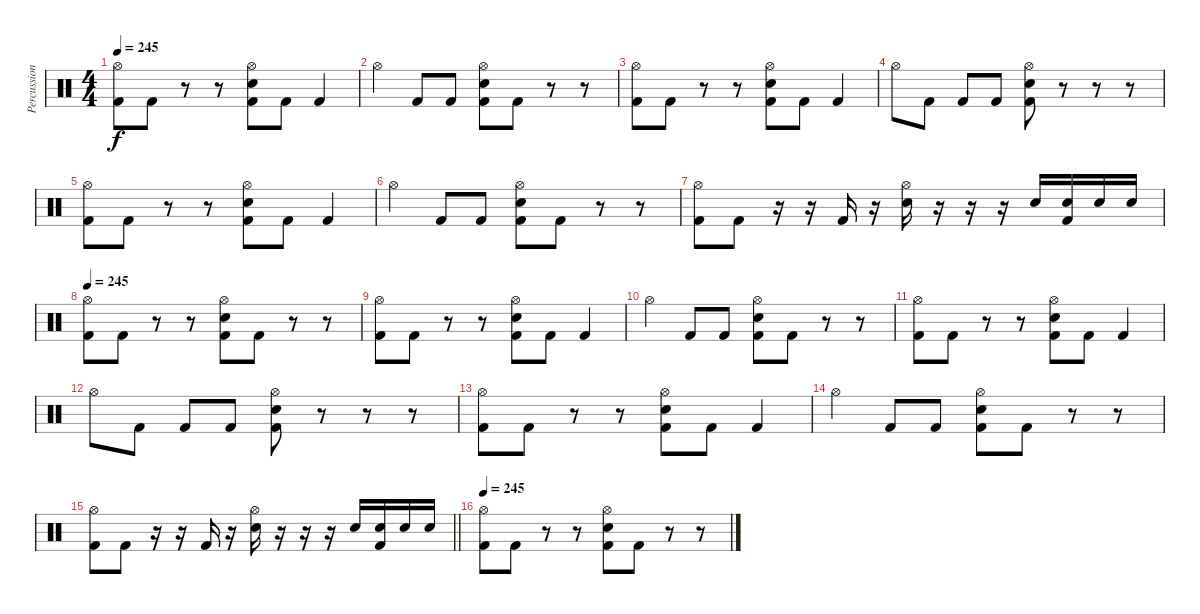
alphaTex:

\track ("Percussion" "Percussion") {instrument percussion}
\staff {score}
\articulation defaults
\ts (4 4)
\tempo 245
\clef neutral
\ks c
("Hi-Hat (open)" "Kick (hit) 2").8{dy f} "Kick (hit) 2".8 r.8 r.8 ("Hi-Hat (open)" "Electric Snare (hit)" "Kick (hit) 2").8 "Kick (hit) 2".8 "Kick (hit) 2".4 |
"Hi-Hat (open)".4 "Kick (hit) 2".8 "Kick (hit) 2".8 ("Hi-Hat (open)" "Electric Snare (hit)" "Kick (hit) 2").8 "Kick (hit) 2".8 r.8 r.8 |
("Hi-Hat (open)" "Kick (hit) 2").8 "Kick (hit) 2".8 r.8 r.8 ("Hi-Hat (open)" "Electric Snare (hit)" "Kick (hit) 2").8 "Kick (hit) 2".8 "Kick (hit) 2".4 |
"Hi-Hat (open)".8 "Kick (hit) 2".8 "Kick (hit) 2".8 "Kick (hit) 2".8 ("Hi-Hat (open)" "Electric Snare (hit)" "Kick (hit) 2").8 r.8 r.8 r.8 |
("Hi-Hat (open)" "Kick (hit) 2").8 "Kick (hit) 2".8 r.8 r.8 ("Hi-Hat (open)" "Electric Snare (hit)" "Kick (hit) 2").8 "Kick (hit) 2".8 "Kick (hit) 2".4 |
"Hi-Hat (open)".4 "Kick (hit) 2".8 "Kick (hit) 2".8 ("Hi-Hat (open)" "Electric Snare (hit)" "Kick (hit) 2").8 "Kick (hit) 2".8 r.8 r.8 |
("Hi-Hat (open)" "Kick (hit) 2").8 "Kick (hit) 2".8 r.16 r.16 "Kick (hit) 2".16 r.16 ("Hi-Hat (open)" "Electric Snare (hit)").16 r.16 r.16 r.16 "Electric Snare (hit)".16 ("Electric Snare (hit)" "Kick (hit) 2").16 "Electric Snare (hit)".16 "Electric Snare (hit)".16 |
\tempo 245
("Hi-Hat (open)" "Kick (hit) 2").8 "Kick (hit) 2".8 r.8 r.8 ("Hi-Hat (open)" "Electric Snare (hit)" "Kick (hit) 2").8 "Kick (hit) 2".8 r.8 r.8 |
("Hi-Hat (open)" "Kick (hit) 2").8 "Kick (hit) 2".8 r.8 r.8 ("Hi-Hat (open)" "Electric Snare (hit)" "Kick (hit) 2").8 "Kick (hit) 2".8 "Kick (hit) 2".4 |
"Hi-Hat (open)".4 "Kick (hit) 2".8 "Kick (hit) 2".8 ("Hi-Hat (open)" "Electric Snare (hit)" "Kick (hit) 2").8 "Kick (hit) 2".8 r.8 r.8 |
("Hi-Hat (open)" "Kick (hit) 2").8 "Kick (hit) 2".8 r.8 r.8 ("Hi-Hat (open)" "Electric Snare (hit)" "Kick (hit) 2").8 "Kick (hit) 2".8 "Kick (hit) 2".4 |
"Hi-Hat (open)".8 "Kick (hit) 2".8 "Kick (hit) 2".8 "Kick (hit) 2".8 ("Hi-Hat (open)" "Electric Snare (hit)" "Kick (hit) 2").8 r.8 r.8 r.8 |
("Hi-Hat (open)" "Kick (hit) 2").8 "Kick (hit) 2".8 r.8 r.8 ("Hi-Hat (open)" "Electric Snare (hit)" "Kick (hit) 2").8 "Kick (hit) 2".8 "Kick (hit) 2".4 |
"Hi-Hat (open)".4 "Kick (hit) 2".8 "Kick (hit) 2".8 ("Hi-Hat (open)" "Electric Snare (hit)" "Kick (hit) 2").8 "Kick (hit) 2".8 r.8 r.8 |
\barLineRight lightlight
("Hi-Hat (open)" "Kick (hit) 2").8 "Kick (hit) 2".8 r.16 r.16 "Kick (hit) 2".16 r.16 ("Hi-Hat (open)" "Electric Snare (hit)").16 r.16 r.16 r.16 "Electric Snare (hit)".16 ("Electric Snare (hit)" "Kick (hit) 2").16 "Electric Snare (hit)".16 "Electric Snare (hit)".16 |
\tempo 245
("Hi-Hat (open)" "Kick (hit) 2").8 "Kick (hit) 2".8 r.8 r.8 ("Hi-Hat (open)" "Electric Snare (hit)" "Kick (hit) 2").8 "Kick (hit) 2".8 r.8 r.8
